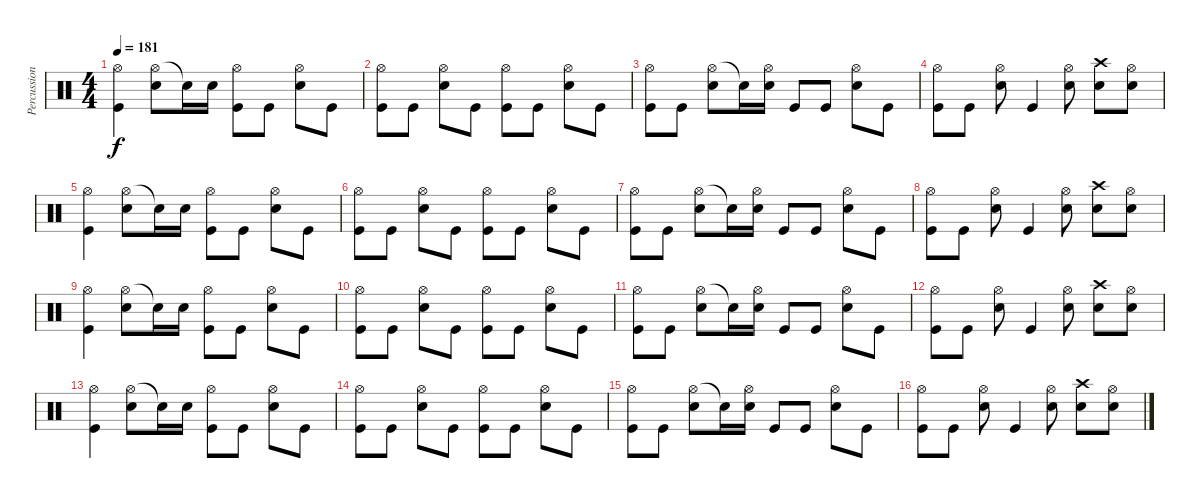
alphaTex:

\track ("Percussion" "Percussion") {instrument percussion}
\staff {score}
\articulation defaults
\ts (4 4)
\tempo 181
\clef neutral
\ks c
("Hi-Hat (open)" "Kick (hit)").4{dy f} ("Hi-Hat (open)" "Electric Snare (hit)").8 "Electric Snare (hit)"{t}.16 "Electric Snare (hit)".16 ("Hi-Hat (open)" "Kick (hit)").8 "Kick (hit)".8 ("Hi-Hat (open)" "Electric Snare (hit)").8 "Kick (hit)".8 |
("Hi-Hat (open)" "Kick (hit)").8 "Kick (hit)".8 ("Hi-Hat (open)" "Electric Snare (hit)").8 "Kick (hit)".8 ("Hi-Hat (open)" "Kick (hit)").8 "Kick (hit)".8 ("Hi-Hat (open)" "Electric Snare (hit)").8 "Kick (hit)".8 |
("Hi-Hat (open)" "Kick (hit)").8 "Kick (hit)".8 ("Hi-Hat (open)" "Electric Snare (hit)").8 "Electric Snare (hit)"{t}.16 ("Hi-Hat (open)" "Electric Snare (hit)").16 "Kick (hit)".8 "Kick (hit)".8 ("Hi-Hat (open)" "Electric Snare (hit)").8 "Kick (hit)".8 |
("Hi-Hat (open)" "Kick (hit)").8 "Kick (hit)".8 ("Hi-Hat (open)" "Electric Snare (hit)").8 "Kick (hit)".4 ("Hi-Hat (open)" "Electric Snare (hit)").8 ("Crash high (hit)" "Electric Snare (hit)").8 ("Hi-Hat (open)" "Electric Snare (hit)").8 |
("Hi-Hat (open)" "Kick (hit)").4 ("Hi-Hat (open)" "Electric Snare (hit)").8 "Electric Snare (hit)"{t}.16 "Electric Snare (hit)".16 ("Hi-Hat (open)" "Kick (hit)").8 "Kick (hit)".8 ("Hi-Hat (open)" "Electric Snare (hit)").8 "Kick (hit)".8 |
("Hi-Hat (open)" "Kick (hit)").8 "Kick (hit)".8 ("Hi-Hat (open)" "Electric Snare (hit)").8 "Kick (hit)".8 ("Hi-Hat (open)" "Kick (hit)").8 "Kick (hit)".8 ("Hi-Hat (open)" "Electric Snare (hit)").8 "Kick (hit)".8 |
("Hi-Hat (open)" "Kick (hit)").8 "Kick (hit)".8 ("Hi-Hat (open)" "Electric Snare (hit)").8 "Electric Snare (hit)"{t}.16 ("Hi-Hat (open)" "Electric Snare (hit)").16 "Kick (hit)".8 "Kick (hit)".8 ("Hi-Hat (open)" "Electric Snare (hit)").8 "Kick (hit)".8 |
("Hi-Hat (open)" "Kick (hit)").8 "Kick (hit)".8 ("Hi-Hat (open)" "Electric Snare (hit)").8 "Kick (hit)".4 ("Hi-Hat (open)" "Electric Snare (hit)").8 ("Crash high (hit)" "Electric Snare (hit)").8 ("Hi-Hat (open)" "Electric Snare (hit)").8 |
("Hi-Hat (open)" "Kick (hit)").4 ("Hi-Hat (open)" "Electric Snare (hit)").8 "Electric Snare (hit)"{t}.16 "Electric Snare (hit)".16 ("Hi-Hat (open)" "Kick (hit)").8 "Kick (hit)".8 ("Hi-Hat (open)" "Electric Snare (hit)").8 "Kick (hit)".8 |
("Hi-Hat (open)" "Kick (hit)").8 "Kick (hit)".8 ("Hi-Hat (open)" "Electric Snare (hit)").8 "Kick (hit)".8 ("Hi-Hat (open)" "Kick (hit)").8 "Kick (hit)".8 ("Hi-Hat (open)" "Electric Snare (hit)").8 "Kick (hit)".8 |
("Hi-Hat (open)" "Kick (hit)").8 "Kick (hit)".8 ("Hi-Hat (open)" "Electric Snare (hit)").8 "Electric Snare (hit)"{t}.16 ("Hi-Hat (open)" "Electric Snare (hit)").16 "Kick (hit)".8 "Kick (hit)".8 ("Hi-Hat (open)" "Electric Snare (hit)").8 "Kick (hit)".8 |
("Hi-Hat (open)" "Kick (hit)").8 "Kick (hit)".8 ("Hi-Hat (open)" "Electric Snare (hit)").8 "Kick (hit)".4 ("Hi-Hat (open)" "Electric Snare (hit)").8 ("Crash high (hit)" "Electric Snare (hit)").8 ("Hi-Hat (open)" "Electric Snare (hit)").8 |
("Hi-Hat (open)" "Kick (hit)").4 ("Hi-Hat (open)" "Electric Snare (hit)").8 "Electric Snare (hit)"{t}.16 "Electric Snare (hit)".16 ("Hi-Hat (open)" "Kick (hit)").8 "Kick (hit)".8 ("Hi-Hat (open)" "Electric Snare (hit)").8 "Kick (hit)".8 |
("Hi-Hat (open)" "Kick (hit)").8 "Kick (hit)".8 ("Hi-Hat (open)" "Electric Snare (hit)").8 "Kick (hit)".8 ("Hi-Hat (open)" "Kick (hit)").8 "Kick (hit)".8 ("Hi-Hat (open)" "Electric Snare (hit)").8 "Kick (hit)".8 |
("Hi-Hat (open)" "Kick (hit)").8 "Kick (hit)".8 ("Hi-Hat (open)" "Electric Snare (hit)").8 "Electric Snare (hit)"{t}.16 ("Hi-Hat (open)" "Electric Snare (hit)").16 "Kick (hit)".8 "Kick (hit)".8 ("Hi-Hat (open)" "Electric Snare (hit)").8 "Kick (hit)".8 |
("Hi-Hat (open)" "Kick (hit)").8 "Kick (hit)".8 ("Hi-Hat (open)" "Electric Snare (hit)").8 "Kick (hit)".4 ("Hi-Hat (open)" "Electric Snare (hit)").8 ("Crash high (hit)" "Electric Snare (hit)").8 ("Hi-Hat (open)" "Electric Snare (hit)").8
